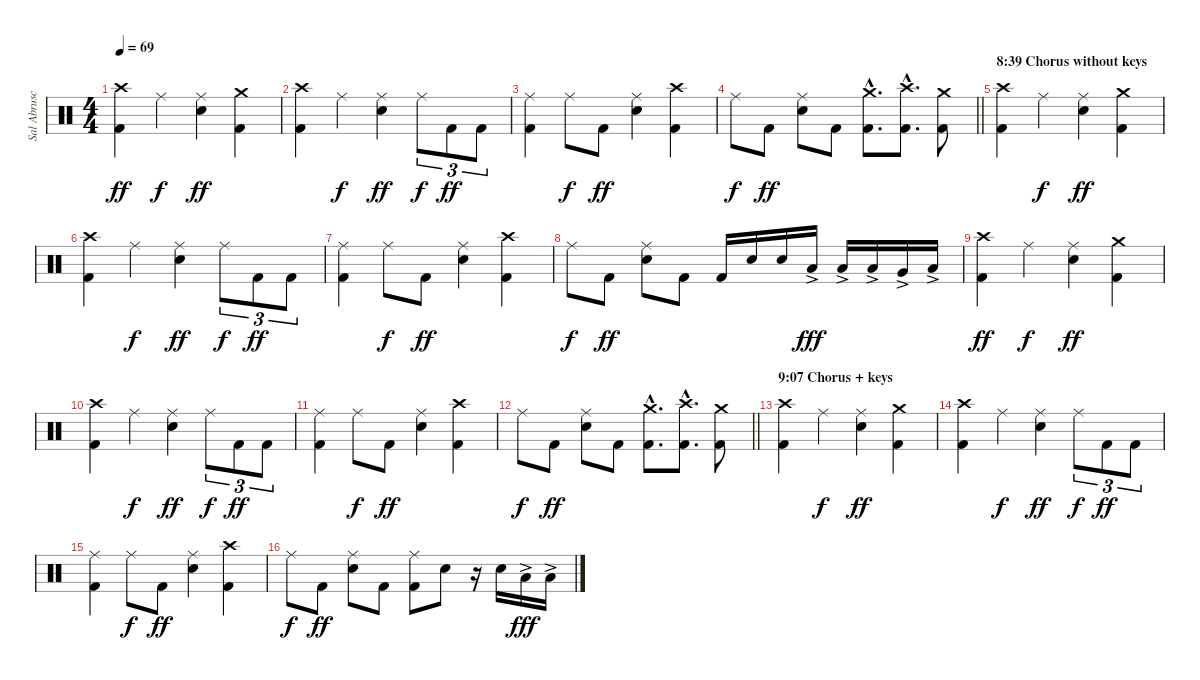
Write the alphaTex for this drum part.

\track ("Sal Abruscato (Drums)" "Sal Abrusc") {instrument percussion}
\staff {score}
\articulation defaults
\ts (4 4)
\tempo 69
\clef neutral
\ks c
("Kick (hit) 2" "Crash high (hit)").4{dy ff} "Ride (middle)".4{dy f} ("Electric Snare (hit)" "Ride (middle)").4{dy ff} ("Kick (hit) 2" "Crash medium (hit)").4 |
("Kick (hit) 2" "Crash high (hit)").4 "Ride (middle)".4{dy f} ("Electric Snare (hit)" "Ride (middle)").4{dy ff} "Ride (middle)".8{tu (3 2) dy f} "Kick (hit) 2".8{tu (3 2) dy ff} "Kick (hit) 2".8{tu (3 2)} |
("Kick (hit) 2" "Ride (middle)").4 "Ride (middle)".8{dy f} "Kick (hit) 2".8{dy ff} ("Electric Snare (hit)" "Ride (middle)").4 ("Kick (hit) 2" "Crash high (hit)").4 |
\barLineRight lightlight "Ride (middle)".8{dy f} "Kick (hit) 2".8{dy ff}
("Electric Snare (hit)" "Ride (middle)").8 "Kick (hit) 2".8 ("Kick (hit) 2"{hac} "Crash medium (hit)"{hac}).8{d} ("Kick (hit) 2"{hac} "Crash high (hit)"{hac}).8{d} ("Kick (hit) 2" "Crash medium (hit)").8 |
\section ("" "8:39 Chorus without keys")
("Kick (hit) 2" "Crash high (hit)").4 "Ride (middle)".4{dy f} ("Electric Snare (hit)" "Ride (middle)").4{dy ff} ("Kick (hit) 2" "Crash medium (hit)").4 |
("Kick (hit) 2" "Crash high (hit)").4 "Ride (middle)".4{dy f} ("Electric Snare (hit)" "Ride (middle)").4{dy ff} "Ride (middle)".8{tu (3 2) dy f} "Kick (hit) 2".8{tu (3 2) dy ff} "Kick (hit) 2".8{tu (3 2)} |
("Kick (hit) 2" "Ride (middle)").4 "Ride (middle)".8{dy f} "Kick (hit) 2".8{dy ff} ("Electric Snare (hit)" "Ride (middle)").4 ("Kick (hit) 2" "Crash high (hit)").4 |
"Ride (middle)".8{dy f} "Kick (hit) 2".8{dy ff} ("Electric Snare (hit)" "Ride (middle)").8 "Kick (hit) 2".8 "Kick (hit) 2".16 "Electric Snare (hit)".16 "Electric Snare (hit)".16 "Low Tom (hit)"{ac}.16{dy fff} "Low Tom (hit)"{ac}.16 "Low Tom (hit)"{ac}.16 "Very Low Tom (hit)"{ac}.16 "Low Floor Tom (hit)"{ac}.16 |
("Kick (hit) 2" "Crash high (hit)").4{dy ff} "Ride (middle)".4{dy f} ("Electric Snare (hit)" "Ride (middle)").4{dy ff} ("Kick (hit) 2" "Crash medium (hit)").4 |
("Kick (hit) 2" "Crash high (hit)").4 "Ride (middle)".4{dy f} ("Electric Snare (hit)" "Ride (middle)").4{dy ff} "Ride (middle)".8{tu (3 2) dy f} "Kick (hit) 2".8{tu (3 2) dy ff} "Kick (hit) 2".8{tu (3 2)} |
("Kick (hit) 2" "Ride (middle)").4 "Ride (middle)".8{dy f} "Kick (hit) 2".8{dy ff} ("Electric Snare (hit)" "Ride (middle)").4 ("Kick (hit) 2" "Crash high (hit)").4 |
\barLineRight lightlight "Ride (middle)".8{dy f} "Kick (hit) 2".8{dy ff}
("Electric Snare (hit)" "Ride (middle)").8 "Kick (hit) 2".8 ("Kick (hit) 2"{hac} "Crash medium (hit)"{hac}).8{d} ("Kick (hit) 2"{hac} "Crash high (hit)"{hac}).8{d} ("Kick (hit) 2" "Crash medium (hit)").8 |
\section ("" "9:07 Chorus + keys")
("Kick (hit) 2" "Crash high (hit)").4 "Ride (middle)".4{dy f} ("Electric Snare (hit)" "Ride (middle)").4{dy ff} ("Kick (hit) 2" "Crash medium (hit)").4 |
("Kick (hit) 2" "Crash high (hit)").4 "Ride (middle)".4{dy f} ("Electric Snare (hit)" "Ride (middle)").4{dy ff} "Ride (middle)".8{tu (3 2) dy f} "Kick (hit) 2".8{tu (3 2) dy ff} "Kick (hit) 2".8{tu (3 2)} |
("Kick (hit) 2" "Ride (middle)").4 "Ride (middle)".8{dy f} "Kick (hit) 2".8{dy ff} ("Electric Snare (hit)" "Ride (middle)").4 ("Kick (hit) 2" "Crash high (hit)").4 |
"Ride (middle)".8{dy f} "Kick (hit) 2".8{dy ff} ("Electric Snare (hit)" "Ride (middle)").8 "Kick (hit) 2".8 ("Kick (hit) 2" "Ride (middle)").8 "Electric Snare (hit)".8 r.16 "Electric Snare (hit)".16 "Low Tom (hit)"{ac}.16{dy fff} "Low Floor Tom (hit)"{ac}.16
